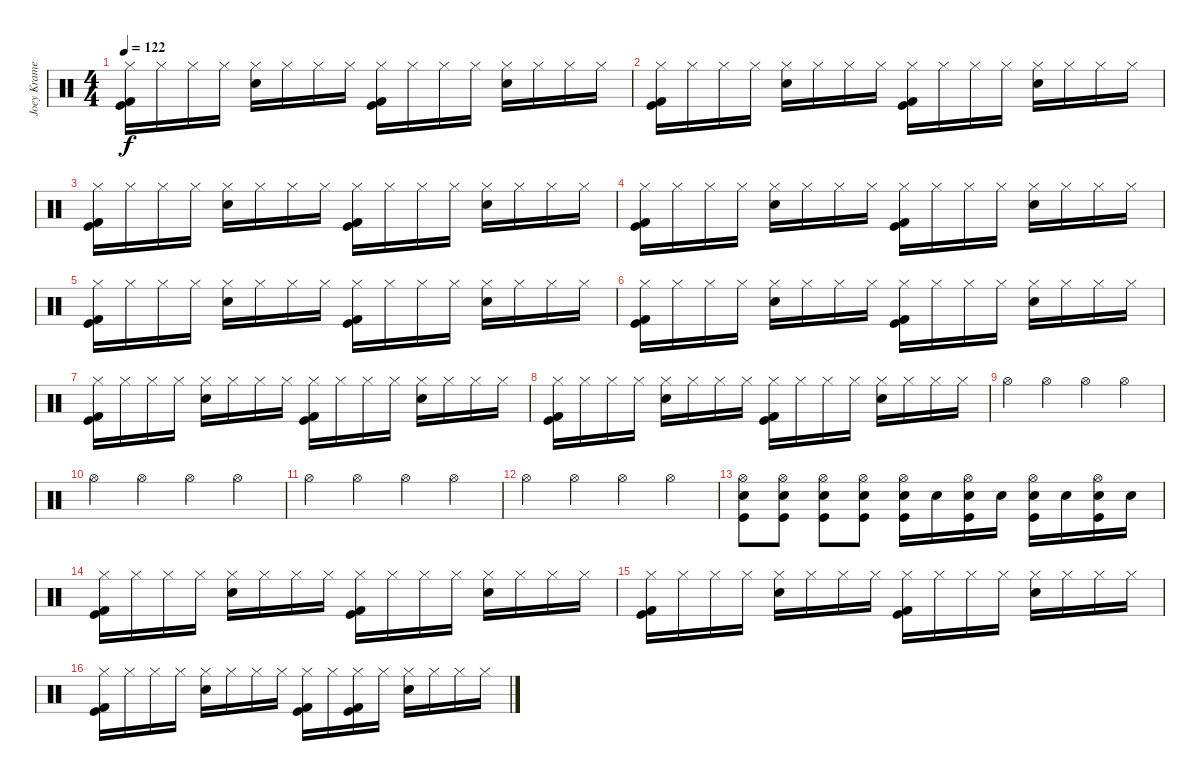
\track ("Joey Kramer" "Joey Krame") {instrument percussion}
\staff {score}
\articulation defaults
\ts (4 4)
\tempo 122
\clef neutral
\ks c
("Hi-Hat (closed)" "Kick (hit)" "Kick (hit) 2").16{dy f} "Hi-Hat (closed)".16 "Hi-Hat (closed)".16 "Hi-Hat (closed)".16 ("Hi-Hat (closed)" "Snare (hit) 2").16 "Hi-Hat (closed)".16 "Hi-Hat (closed)".16 "Hi-Hat (closed)".16 ("Hi-Hat (closed)" "Kick (hit)" "Kick (hit) 2").16 "Hi-Hat (closed)".16 "Hi-Hat (closed)".16 "Hi-Hat (closed)".16 ("Hi-Hat (closed)" "Snare (hit) 2").16 "Hi-Hat (closed)".16 "Hi-Hat (closed)".16 "Hi-Hat (closed)".16 |
("Hi-Hat (closed)" "Kick (hit)" "Kick (hit) 2").16 "Hi-Hat (closed)".16 "Hi-Hat (closed)".16 "Hi-Hat (closed)".16 ("Hi-Hat (closed)" "Snare (hit) 2").16 "Hi-Hat (closed)".16 "Hi-Hat (closed)".16 "Hi-Hat (closed)".16 ("Hi-Hat (closed)" "Kick (hit)" "Kick (hit) 2").16 "Hi-Hat (closed)".16 "Hi-Hat (closed)".16 "Hi-Hat (closed)".16 ("Hi-Hat (closed)" "Snare (hit) 2").16 "Hi-Hat (closed)".16 "Hi-Hat (closed)".16 "Hi-Hat (closed)".16 |
("Hi-Hat (closed)" "Kick (hit)" "Kick (hit) 2").16 "Hi-Hat (closed)".16 "Hi-Hat (closed)".16 "Hi-Hat (closed)".16 ("Hi-Hat (closed)" "Snare (hit) 2").16 "Hi-Hat (closed)".16 "Hi-Hat (closed)".16 "Hi-Hat (closed)".16 ("Hi-Hat (closed)" "Kick (hit)" "Kick (hit) 2").16 "Hi-Hat (closed)".16 "Hi-Hat (closed)".16 "Hi-Hat (closed)".16 ("Hi-Hat (closed)" "Snare (hit) 2").16 "Hi-Hat (closed)".16 "Hi-Hat (closed)".16 "Hi-Hat (closed)".16 |
("Hi-Hat (closed)" "Kick (hit)" "Kick (hit) 2").16 "Hi-Hat (closed)".16 "Hi-Hat (closed)".16 "Hi-Hat (closed)".16 ("Hi-Hat (closed)" "Snare (hit) 2").16 "Hi-Hat (closed)".16 "Hi-Hat (closed)".16 "Hi-Hat (closed)".16 ("Hi-Hat (closed)" "Kick (hit)" "Kick (hit) 2").16 "Hi-Hat (closed)".16 "Hi-Hat (closed)".16 "Hi-Hat (closed)".16 ("Hi-Hat (closed)" "Snare (hit) 2").16 "Hi-Hat (closed)".16 "Hi-Hat (closed)".16 "Hi-Hat (closed)".16 |
("Hi-Hat (closed)" "Kick (hit)" "Kick (hit) 2").16 "Hi-Hat (closed)".16 "Hi-Hat (closed)".16 "Hi-Hat (closed)".16 ("Hi-Hat (closed)" "Snare (hit) 2").16 "Hi-Hat (closed)".16 "Hi-Hat (closed)".16 "Hi-Hat (closed)".16 ("Hi-Hat (closed)" "Kick (hit)" "Kick (hit) 2").16 "Hi-Hat (closed)".16 "Hi-Hat (closed)".16 "Hi-Hat (closed)".16 ("Hi-Hat (closed)" "Snare (hit) 2").16 "Hi-Hat (closed)".16 "Hi-Hat (closed)".16 "Hi-Hat (closed)".16 |
("Hi-Hat (closed)" "Kick (hit)" "Kick (hit) 2").16 "Hi-Hat (closed)".16 "Hi-Hat (closed)".16 "Hi-Hat (closed)".16 ("Hi-Hat (closed)" "Snare (hit) 2").16 "Hi-Hat (closed)".16 "Hi-Hat (closed)".16 "Hi-Hat (closed)".16 ("Hi-Hat (closed)" "Kick (hit)" "Kick (hit) 2").16 "Hi-Hat (closed)".16 "Hi-Hat (closed)".16 "Hi-Hat (closed)".16 ("Hi-Hat (closed)" "Snare (hit) 2").16 "Hi-Hat (closed)".16 "Hi-Hat (closed)".16 "Hi-Hat (closed)".16 |
("Hi-Hat (closed)" "Kick (hit)" "Kick (hit) 2").16 "Hi-Hat (closed)".16 "Hi-Hat (closed)".16 "Hi-Hat (closed)".16 ("Hi-Hat (closed)" "Snare (hit) 2").16 "Hi-Hat (closed)".16 "Hi-Hat (closed)".16 "Hi-Hat (closed)".16 ("Hi-Hat (closed)" "Kick (hit)" "Kick (hit) 2").16 "Hi-Hat (closed)".16 "Hi-Hat (closed)".16 "Hi-Hat (closed)".16 ("Hi-Hat (closed)" "Snare (hit) 2").16 "Hi-Hat (closed)".16 "Hi-Hat (closed)".16 "Hi-Hat (closed)".16 |
("Hi-Hat (closed)" "Kick (hit)" "Kick (hit) 2").16 "Hi-Hat (closed)".16 "Hi-Hat (closed)".16 "Hi-Hat (closed)".16 ("Hi-Hat (closed)" "Snare (hit) 2").16 "Hi-Hat (closed)".16 "Hi-Hat (closed)".16 "Hi-Hat (closed)".16 ("Hi-Hat (closed)" "Kick (hit)" "Kick (hit) 2").16 "Hi-Hat (closed)".16 "Hi-Hat (closed)".16 "Hi-Hat (closed)".16 ("Hi-Hat (closed)" "Snare (hit) 2").16 "Hi-Hat (closed)".16 "Hi-Hat (closed)".16 "Hi-Hat (closed)".16 |
"Hi-Hat (open)".4 "Hi-Hat (open)".4 "Hi-Hat (open)".4 "Hi-Hat (open)".4 |
"Hi-Hat (open)".4 "Hi-Hat (open)".4 "Hi-Hat (open)".4 "Hi-Hat (open)".4 |
"Hi-Hat (open)".4 "Hi-Hat (open)".4 "Hi-Hat (open)".4 "Hi-Hat (open)".4 |
"Hi-Hat (open)".4 "Hi-Hat (open)".4 "Hi-Hat (open)".4 "Hi-Hat (open)".4 |
("Kick (hit)" "Snare (hit) 2" "Hi-Hat (open)").8 ("Kick (hit)" "Snare (hit) 2" "Hi-Hat (open)").8 ("Kick (hit)" "Snare (hit) 2" "Hi-Hat (open)").8 ("Kick (hit)" "Snare (hit) 2" "Hi-Hat (open)").8 ("Kick (hit)" "Snare (hit) 2" "Hi-Hat (open)").16 "Snare (hit) 2".16 ("Kick (hit)" "Snare (hit) 2" "Hi-Hat (open)").16 "Snare (hit) 2".16 ("Kick (hit)" "Snare (hit) 2" "Hi-Hat (open)").16 "Snare (hit) 2".16 ("Kick (hit)" "Snare (hit) 2" "Hi-Hat (open)").16 "Snare (hit) 2".16 |
("Hi-Hat (closed)" "Kick (hit)" "Kick (hit) 2").16 "Hi-Hat (closed)".16 "Hi-Hat (closed)".16 "Hi-Hat (closed)".16 ("Hi-Hat (closed)" "Snare (hit) 2").16 "Hi-Hat (closed)".16 "Hi-Hat (closed)".16 "Hi-Hat (closed)".16 ("Hi-Hat (closed)" "Kick (hit)" "Kick (hit) 2").16 "Hi-Hat (closed)".16 "Hi-Hat (closed)".16 "Hi-Hat (closed)".16 ("Hi-Hat (closed)" "Snare (hit) 2").16 "Hi-Hat (closed)".16 "Hi-Hat (closed)".16 "Hi-Hat (closed)".16 |
("Hi-Hat (closed)" "Kick (hit)" "Kick (hit) 2").16 "Hi-Hat (closed)".16 "Hi-Hat (closed)".16 "Hi-Hat (closed)".16 ("Hi-Hat (closed)" "Snare (hit) 2").16 "Hi-Hat (closed)".16 "Hi-Hat (closed)".16 "Hi-Hat (closed)".16 ("Hi-Hat (closed)" "Kick (hit)" "Kick (hit) 2").16 "Hi-Hat (closed)".16 "Hi-Hat (closed)".16 "Hi-Hat (closed)".16 ("Hi-Hat (closed)" "Snare (hit) 2").16 "Hi-Hat (closed)".16 "Hi-Hat (closed)".16 "Hi-Hat (closed)".16 |
("Hi-Hat (closed)" "Kick (hit)" "Kick (hit) 2").16 "Hi-Hat (closed)".16 "Hi-Hat (closed)".16 "Hi-Hat (closed)".16 ("Hi-Hat (closed)" "Snare (hit) 2").16 "Hi-Hat (closed)".16 "Hi-Hat (closed)".16 "Hi-Hat (closed)".16 ("Hi-Hat (closed)" "Kick (hit)" "Kick (hit) 2").16 "Hi-Hat (closed)".16 ("Hi-Hat (closed)" "Kick (hit)" "Kick (hit) 2").16 "Hi-Hat (closed)".16 ("Hi-Hat (closed)" "Snare (hit) 2").16 "Hi-Hat (closed)".16 "Hi-Hat (closed)".16 "Hi-Hat (closed)".16
